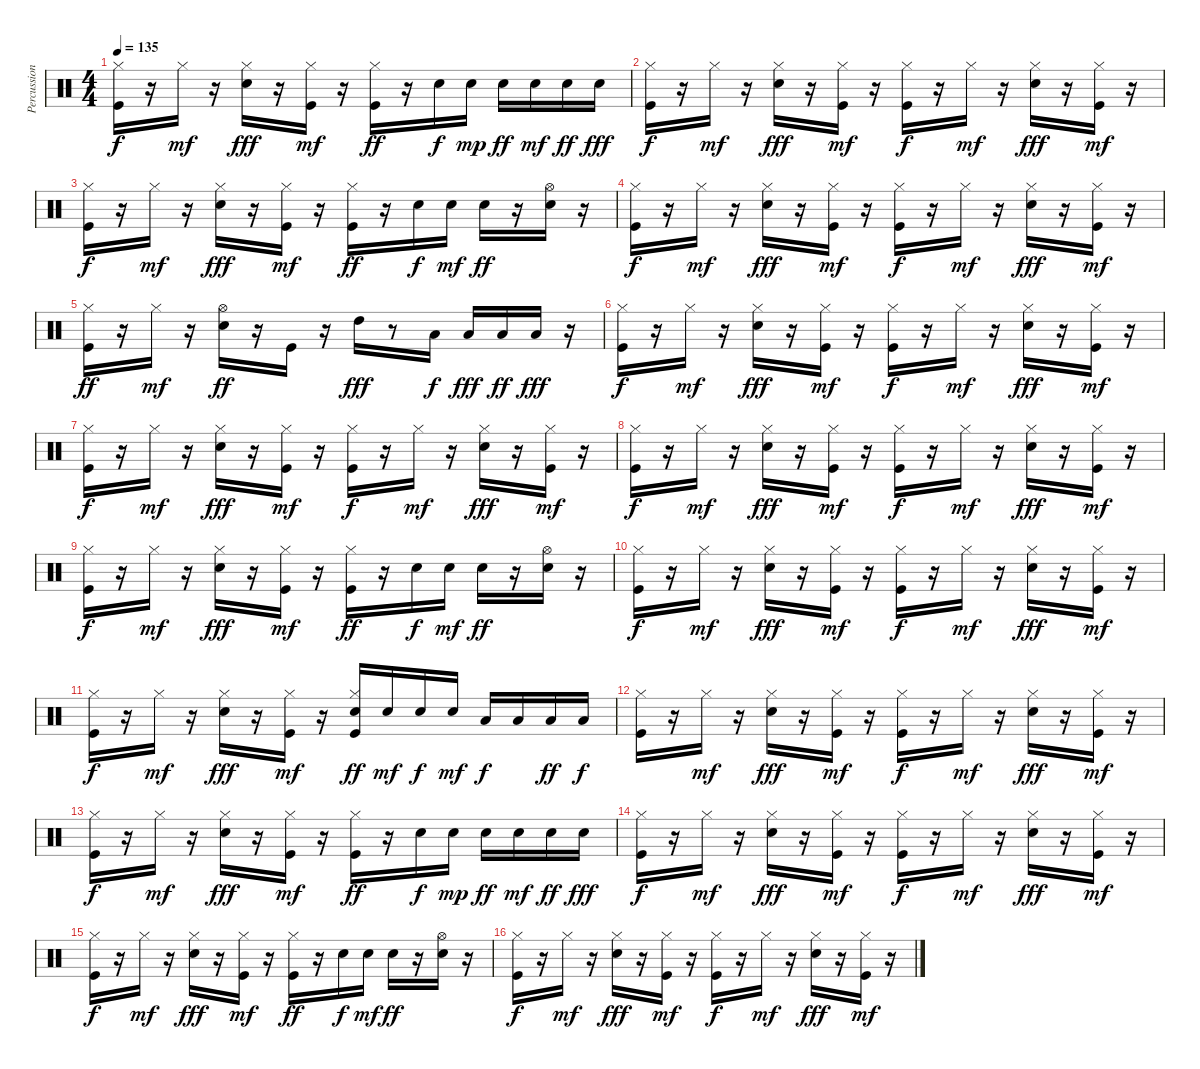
\track ("Percussions" "Percussion") {instrument percussion}
\staff {score}
\articulation defaults
\ts (4 4)
\tempo 135
\clef neutral
\ks c
("Kick (hit)" "Hi-Hat (closed)").16{dy f} r.16 "Hi-Hat (closed)".16{dy mf} r.16 ("Snare (hit) 2" "Hi-Hat (closed)").16{dy fff} r.16 ("Kick (hit)" "Hi-Hat (closed)").16{dy mf} r.16 ("Kick (hit)" "Hi-Hat (closed)").16{dy ff} r.16 "Snare (hit) 2".16{dy f} "Snare (hit) 2".16{dy mp} "Snare (hit) 2".16{dy ff} "Snare (hit) 2".16{dy mf} "Snare (hit) 2".16{dy ff} "Snare (hit) 2".16{dy fff} |
("Kick (hit)" "Hi-Hat (closed)").16{dy f} r.16 "Hi-Hat (closed)".16{dy mf} r.16 ("Snare (hit) 2" "Hi-Hat (closed)").16{dy fff} r.16 ("Kick (hit)" "Hi-Hat (closed)").16{dy mf} r.16 ("Kick (hit)" "Hi-Hat (closed)").16{dy f} r.16 "Hi-Hat (closed)".16{dy mf} r.16 ("Snare (hit) 2" "Hi-Hat (closed)").16{dy fff} r.16 ("Kick (hit)" "Hi-Hat (closed)").16{dy mf} r.16 |
("Kick (hit)" "Hi-Hat (closed)").16{dy f} r.16 "Hi-Hat (closed)".16{dy mf} r.16 ("Snare (hit) 2" "Hi-Hat (closed)").16{dy fff} r.16 ("Kick (hit)" "Hi-Hat (closed)").16{dy mf} r.16 ("Kick (hit)" "Hi-Hat (closed)").16{dy ff} r.16 "Snare (hit) 2".16{dy f} "Snare (hit) 2".16{dy mf} "Snare (hit) 2".16{dy ff} r.16 ("Snare (hit) 2" "Hi-Hat (open)").16 r.16 |
("Kick (hit)" "Hi-Hat (closed)").16{dy f} r.16 "Hi-Hat (closed)".16{dy mf} r.16 ("Snare (hit) 2" "Hi-Hat (closed)").16{dy fff} r.16 ("Kick (hit)" "Hi-Hat (closed)").16{dy mf} r.16 ("Kick (hit)" "Hi-Hat (closed)").16{dy f} r.16 "Hi-Hat (closed)".16{dy mf} r.16 ("Snare (hit) 2" "Hi-Hat (closed)").16{dy fff} r.16 ("Kick (hit)" "Hi-Hat (closed)").16{dy mf} r.16 |
("Kick (hit)" "Hi-Hat (closed)").16{dy ff} r.16 "Hi-Hat (closed)".16{dy mf} r.16 ("Snare (hit) 2" "Hi-Hat (open)").16{dy ff} r.16 "Kick (hit)".16 r.16 "High Tom (hit)".16{dy fff} r.8 "Low Tom (hit)".16{dy f} "Low Tom (hit)".16{dy fff} "Low Floor Tom (hit)".16{dy ff} "Low Floor Tom (hit)".16{dy fff} r.16 |
("Kick (hit)" "Hi-Hat (closed)").16{dy f} r.16 "Hi-Hat (closed)".16{dy mf} r.16 ("Snare (hit) 2" "Hi-Hat (closed)").16{dy fff} r.16 ("Kick (hit)" "Hi-Hat (closed)").16{dy mf} r.16 ("Kick (hit)" "Hi-Hat (closed)").16{dy f} r.16 "Hi-Hat (closed)".16{dy mf} r.16 ("Snare (hit) 2" "Hi-Hat (closed)").16{dy fff} r.16 ("Kick (hit)" "Hi-Hat (closed)").16{dy mf} r.16 |
("Kick (hit)" "Hi-Hat (closed)").16{dy f} r.16 "Hi-Hat (closed)".16{dy mf} r.16 ("Snare (hit) 2" "Hi-Hat (closed)").16{dy fff} r.16 ("Kick (hit)" "Hi-Hat (closed)").16{dy mf} r.16 ("Kick (hit)" "Hi-Hat (closed)").16{dy f} r.16 "Hi-Hat (closed)".16{dy mf} r.16 ("Snare (hit) 2" "Hi-Hat (closed)").16{dy fff} r.16 ("Kick (hit)" "Hi-Hat (closed)").16{dy mf} r.16 |
("Kick (hit)" "Hi-Hat (closed)").16{dy f} r.16 "Hi-Hat (closed)".16{dy mf} r.16 ("Snare (hit) 2" "Hi-Hat (closed)").16{dy fff} r.16 ("Kick (hit)" "Hi-Hat (closed)").16{dy mf} r.16 ("Kick (hit)" "Hi-Hat (closed)").16{dy f} r.16 "Hi-Hat (closed)".16{dy mf} r.16 ("Snare (hit) 2" "Hi-Hat (closed)").16{dy fff} r.16 ("Kick (hit)" "Hi-Hat (closed)").16{dy mf} r.16 |
("Kick (hit)" "Hi-Hat (closed)").16{dy f} r.16 "Hi-Hat (closed)".16{dy mf} r.16 ("Snare (hit) 2" "Hi-Hat (closed)").16{dy fff} r.16 ("Kick (hit)" "Hi-Hat (closed)").16{dy mf} r.16 ("Kick (hit)" "Hi-Hat (closed)").16{dy ff} r.16 "Snare (hit) 2".16{dy f} "Snare (hit) 2".16{dy mf} "Snare (hit) 2".16{dy ff} r.16 ("Snare (hit) 2" "Hi-Hat (open)").16 r.16 |
("Kick (hit)" "Hi-Hat (closed)").16{dy f} r.16 "Hi-Hat (closed)".16{dy mf} r.16 ("Snare (hit) 2" "Hi-Hat (closed)").16{dy fff} r.16 ("Kick (hit)" "Hi-Hat (closed)").16{dy mf} r.16 ("Kick (hit)" "Hi-Hat (closed)").16{dy f} r.16 "Hi-Hat (closed)".16{dy mf} r.16 ("Snare (hit) 2" "Hi-Hat (closed)").16{dy fff} r.16 ("Kick (hit)" "Hi-Hat (closed)").16{dy mf} r.16 |
("Kick (hit)" "Hi-Hat (closed)").16{dy f} r.16 "Hi-Hat (closed)".16{dy mf} r.16 ("Snare (hit) 2" "Hi-Hat (closed)").16{dy fff} r.16 ("Kick (hit)" "Hi-Hat (closed)").16{dy mf} r.16 ("Kick (hit)" "Snare (hit) 2" "Hi-Hat (closed)").16{dy ff} "Snare (hit) 2".16{dy mf} "Snare (hit) 2".16{dy f} "Snare (hit) 2".16{dy mf} "Low Tom (hit)".16{dy f} "Low Tom (hit)".16 "Low Tom (hit)".16{dy ff} "Low Tom (hit)".16{dy f} |
("Kick (hit)" "Hi-Hat (closed)").16 r.16 "Hi-Hat (closed)".16{dy mf} r.16 ("Snare (hit) 2" "Hi-Hat (closed)").16{dy fff} r.16 ("Kick (hit)" "Hi-Hat (closed)").16{dy mf} r.16 ("Kick (hit)" "Hi-Hat (closed)").16{dy f} r.16 "Hi-Hat (closed)".16{dy mf} r.16 ("Snare (hit) 2" "Hi-Hat (closed)").16{dy fff} r.16 ("Kick (hit)" "Hi-Hat (closed)").16{dy mf} r.16 |
("Kick (hit)" "Hi-Hat (closed)").16{dy f} r.16 "Hi-Hat (closed)".16{dy mf} r.16 ("Snare (hit) 2" "Hi-Hat (closed)").16{dy fff} r.16 ("Kick (hit)" "Hi-Hat (closed)").16{dy mf} r.16 ("Kick (hit)" "Hi-Hat (closed)").16{dy ff} r.16 "Snare (hit) 2".16{dy f} "Snare (hit) 2".16{dy mp} "Snare (hit) 2".16{dy ff} "Snare (hit) 2".16{dy mf} "Snare (hit) 2".16{dy ff} "Snare (hit) 2".16{dy fff} |
("Kick (hit)" "Hi-Hat (closed)").16{dy f} r.16 "Hi-Hat (closed)".16{dy mf} r.16 ("Snare (hit) 2" "Hi-Hat (closed)").16{dy fff} r.16 ("Kick (hit)" "Hi-Hat (closed)").16{dy mf} r.16 ("Kick (hit)" "Hi-Hat (closed)").16{dy f} r.16 "Hi-Hat (closed)".16{dy mf} r.16 ("Snare (hit) 2" "Hi-Hat (closed)").16{dy fff} r.16 ("Kick (hit)" "Hi-Hat (closed)").16{dy mf} r.16 |
("Kick (hit)" "Hi-Hat (closed)").16{dy f} r.16 "Hi-Hat (closed)".16{dy mf} r.16 ("Snare (hit) 2" "Hi-Hat (closed)").16{dy fff} r.16 ("Kick (hit)" "Hi-Hat (closed)").16{dy mf} r.16 ("Kick (hit)" "Hi-Hat (closed)").16{dy ff} r.16 "Snare (hit) 2".16{dy f} "Snare (hit) 2".16{dy mf} "Snare (hit) 2".16{dy ff} r.16 ("Snare (hit) 2" "Hi-Hat (open)").16 r.16 |
("Kick (hit)" "Hi-Hat (closed)").16{dy f} r.16 "Hi-Hat (closed)".16{dy mf} r.16 ("Snare (hit) 2" "Hi-Hat (closed)").16{dy fff} r.16 ("Kick (hit)" "Hi-Hat (closed)").16{dy mf} r.16 ("Kick (hit)" "Hi-Hat (closed)").16{dy f} r.16 "Hi-Hat (closed)".16{dy mf} r.16 ("Snare (hit) 2" "Hi-Hat (closed)").16{dy fff} r.16 ("Kick (hit)" "Hi-Hat (closed)").16{dy mf} r.16
